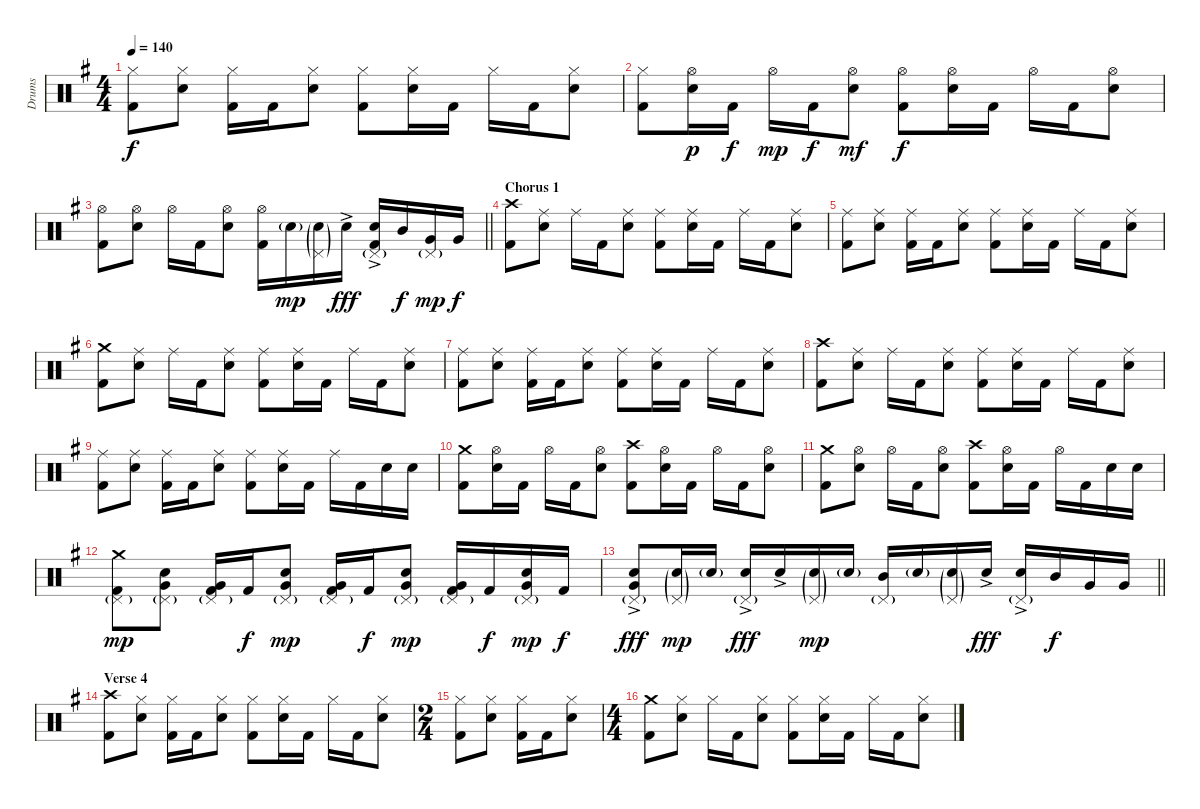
\track ("Drums" "Drums") {instrument percussion}
\staff {score}
\articulation defaults
\ts (4 4)
\tempo 140
\clef neutral
\ks g
("Hi-Hat (closed)" "Kick (hit) 2").8{dy f} ("Hi-Hat (closed)" "Electric Snare (hit)").8 ("Hi-Hat (closed)" "Kick (hit) 2").16 "Kick (hit) 2".16 ("Hi-Hat (closed)" "Electric Snare (hit)").8 ("Hi-Hat (closed)" "Kick (hit) 2").8 ("Hi-Hat (closed)" "Electric Snare (hit)").16 "Kick (hit) 2".16 "Hi-Hat (closed)".16 "Kick (hit) 2".16 ("Hi-Hat (closed)" "Electric Snare (hit)").8 |
("Hi-Hat (closed)" "Kick (hit) 2").8 ("Hi-Hat (open)" "Electric Snare (hit)").16{dy p} "Kick (hit) 2".16{dy f} "Hi-Hat (open)".16{dy mp} "Kick (hit) 2".16{dy f} ("Hi-Hat (open)" "Electric Snare (hit)").8{dy mf} ("Hi-Hat (open)" "Kick (hit) 2").8{dy f} ("Hi-Hat (open)" "Electric Snare (hit)").16 "Kick (hit) 2".16 "Hi-Hat (open)".16 "Kick (hit) 2".16 ("Hi-Hat (open)" "Electric Snare (hit)").8 |
\barLineRight lightlight
("Hi-Hat (open)" "Kick (hit) 2").8 ("Hi-Hat (open)" "Electric Snare (hit)").8 "Hi-Hat (open)".16 "Kick (hit) 2".16 ("Hi-Hat (open)" "Electric Snare (hit)").8 ("Hi-Hat (open)" "Kick (hit) 2").16 "Electric Snare (hit)"{g}.16{dy mp} ("Pedal Hi-Hat (hit)"{g} "Electric Snare (hit)"{g}).16 "Electric Snare (hit)"{ac}.16{dy fff} ("Pedal Hi-Hat (hit)"{g} "Electric Snare (hit)"{ac} "Kick (hit) 2").16 "Mid Tom (hit)".16{dy f} ("Pedal Hi-Hat (hit)"{g} "Very Low Tom (hit)").16{dy mp} "Very Low Tom (hit)".16{dy f} |
\section ("" "Chorus 1")
("Crash high (hit)" "Kick (hit) 2").8 ("Ride (middle)" "Electric Snare (hit)").8 "Ride (middle)".16 "Kick (hit) 2".16 ("Ride (middle)" "Electric Snare (hit)").8 ("Ride (middle)" "Kick (hit) 2").8 ("Ride (middle)" "Electric Snare (hit)").16 "Kick (hit) 2".16 "Ride (middle)".16 "Kick (hit) 2".16 ("Ride (middle)" "Electric Snare (hit)").8 |
("Ride (middle)" "Kick (hit) 2").8 ("Ride (middle)" "Electric Snare (hit)").8 ("Ride (middle)" "Kick (hit) 2").16 "Kick (hit) 2".16 ("Ride (middle)" "Electric Snare (hit)").8 ("Ride (middle)" "Kick (hit) 2").8 ("Ride (middle)" "Electric Snare (hit)").16 "Kick (hit) 2".16 "Ride (middle)".16 "Kick (hit) 2".16 ("Ride (middle)" "Electric Snare (hit)").8 |
("Crash medium (hit)" "Kick (hit) 2").8 ("Ride (middle)" "Electric Snare (hit)").8 "Ride (middle)".16 "Kick (hit) 2".16 ("Ride (middle)" "Electric Snare (hit)").8 ("Ride (middle)" "Kick (hit) 2").8 ("Ride (middle)" "Electric Snare (hit)").16 "Kick (hit) 2".16 "Ride (middle)".16 "Kick (hit) 2".16 ("Ride (middle)" "Electric Snare (hit)").8 |
("Ride (middle)" "Kick (hit) 2").8 ("Ride (middle)" "Electric Snare (hit)").8 ("Ride (middle)" "Kick (hit) 2").16 "Kick (hit) 2".16 ("Ride (middle)" "Electric Snare (hit)").8 ("Ride (middle)" "Kick (hit) 2").8 ("Ride (middle)" "Electric Snare (hit)").16 "Kick (hit) 2".16 "Ride (middle)".16 "Kick (hit) 2".16 ("Ride (middle)" "Electric Snare (hit)").8 |
("Crash high (hit)" "Kick (hit) 2").8 ("Ride (middle)" "Electric Snare (hit)").8 "Ride (middle)".16 "Kick (hit) 2".16 ("Ride (middle)" "Electric Snare (hit)").8 ("Ride (middle)" "Kick (hit) 2").8 ("Ride (middle)" "Electric Snare (hit)").16 "Kick (hit) 2".16 "Ride (middle)".16 "Kick (hit) 2".16 ("Ride (middle)" "Electric Snare (hit)").8 |
("Ride (middle)" "Kick (hit) 2").8 ("Ride (middle)" "Electric Snare (hit)").8 ("Ride (middle)" "Kick (hit) 2").16 "Kick (hit) 2".16 ("Ride (middle)" "Electric Snare (hit)").8 ("Ride (middle)" "Kick (hit) 2").8 ("Ride (middle)" "Electric Snare (hit)").16 "Kick (hit) 2".16 "Ride (middle)".16 "Kick (hit) 2".16 "Electric Snare (hit)".16 "Electric Snare (hit)".16 |
("Crash medium (hit)" "Kick (hit) 2").8 ("Hi-Hat (open)" "Electric Snare (hit)").16 "Kick (hit) 2".16 "Hi-Hat (open)".16 "Kick (hit) 2".16 ("Hi-Hat (open)" "Electric Snare (hit)").8 ("Crash high (hit)" "Kick (hit) 2").8 ("Hi-Hat (open)" "Electric Snare (hit)").16 "Kick (hit) 2".16 "Hi-Hat (open)".16 "Kick (hit) 2".16 ("Hi-Hat (open)" "Electric Snare (hit)").8 |
("Crash medium (hit)" "Kick (hit) 2").8 ("Hi-Hat (open)" "Electric Snare (hit)").8 "Hi-Hat (open)".16 "Kick (hit) 2".16 ("Hi-Hat (open)" "Electric Snare (hit)").8 ("Crash high (hit)" "Kick (hit) 2").8 ("Hi-Hat (open)" "Electric Snare (hit)").16 "Kick (hit) 2".16 "Hi-Hat (open)".16 "Kick (hit) 2".16 "Electric Snare (hit)".16 "Electric Snare (hit)".16 |
("Crash medium (hit)" "Pedal Hi-Hat (hit)"{g} "Kick (hit) 2").8{dy mp} ("Pedal Hi-Hat (hit)"{g} "Electric Snare (hit)" "Very Low Tom (hit)").8 ("Pedal Hi-Hat (hit)"{g} "Very Low Tom (hit)" "Kick (hit) 2").16 "Kick (hit) 2".16{dy f} ("Pedal Hi-Hat (hit)"{g} "Electric Snare (hit)" "Very Low Tom (hit)").8{dy mp} ("Pedal Hi-Hat (hit)"{g} "Very Low Tom (hit)" "Kick (hit) 2").16 "Kick (hit) 2".16{dy f} ("Pedal Hi-Hat (hit)"{g} "Electric Snare (hit)" "Very Low Tom (hit)").8{dy mp} ("Pedal Hi-Hat (hit)"{g} "Very Low Tom (hit)" "Kick (hit) 2").16 "Kick (hit) 2".16{dy f} ("Pedal Hi-Hat (hit)"{g} "Electric Snare (hit)" "Very Low Tom (hit)").16{dy mp} "Kick (hit) 2".16{dy f} |
\barLineRight lightlight
("Pedal Hi-Hat (hit)"{g} "Electric Snare (hit)"{ac} "Very Low Tom (hit)").8{dy fff} ("Pedal Hi-Hat (hit)"{g} "Electric Snare (hit)"{g}).16{dy mp} "Electric Snare (hit)"{g}.16 ("Pedal Hi-Hat (hit)"{g} "Electric Snare (hit)"{ac}).16{dy fff} "Electric Snare (hit)"{ac}.16 ("Pedal Hi-Hat (hit)"{g} "Electric Snare (hit)"{g}).16{dy mp} "Electric Snare (hit)"{g}.16 ("Pedal Hi-Hat (hit)"{g} "Mid Tom (hit)").16 "Electric Snare (hit)"{g}.16 ("Pedal Hi-Hat (hit)"{g} "Electric Snare (hit)"{g}).16 "Electric Snare (hit)"{ac}.16{dy fff} ("Pedal Hi-Hat (hit)"{g} "Electric Snare (hit)"{ac}).16 "Mid Tom (hit)".16{dy f} "Very Low Tom (hit)".16 "Very Low Tom (hit)".16 |
\section ("" "Verse 4")
("Crash high (hit)" "Kick (hit) 2").8 ("Hi-Hat (closed)" "Electric Snare (hit)").8 ("Hi-Hat (closed)" "Kick (hit) 2").16 "Kick (hit) 2".16 ("Hi-Hat (closed)" "Electric Snare (hit)").8 ("Hi-Hat (closed)" "Kick (hit) 2").8 ("Hi-Hat (closed)" "Electric Snare (hit)").16 "Kick (hit) 2".16 "Hi-Hat (closed)".16 "Kick (hit) 2".16 ("Hi-Hat (closed)" "Electric Snare (hit)").8 |
\ts (2 4)
("Hi-Hat (closed)" "Kick (hit) 2").8 ("Hi-Hat (closed)" "Electric Snare (hit)").8 ("Hi-Hat (closed)" "Kick (hit) 2").16 "Kick (hit) 2".16 ("Hi-Hat (closed)" "Electric Snare (hit)").8 |
\ts (4 4)
("Crash medium (hit)" "Kick (hit) 2").8 ("Hi-Hat (closed)" "Electric Snare (hit)").8 "Hi-Hat (closed)".16 "Kick (hit) 2".16 ("Hi-Hat (closed)" "Electric Snare (hit)").8 ("Hi-Hat (closed)" "Kick (hit) 2").8 ("Hi-Hat (closed)" "Electric Snare (hit)").16 "Kick (hit) 2".16 "Hi-Hat (closed)".16 "Kick (hit) 2".16 ("Hi-Hat (closed)" "Electric Snare (hit)").8
